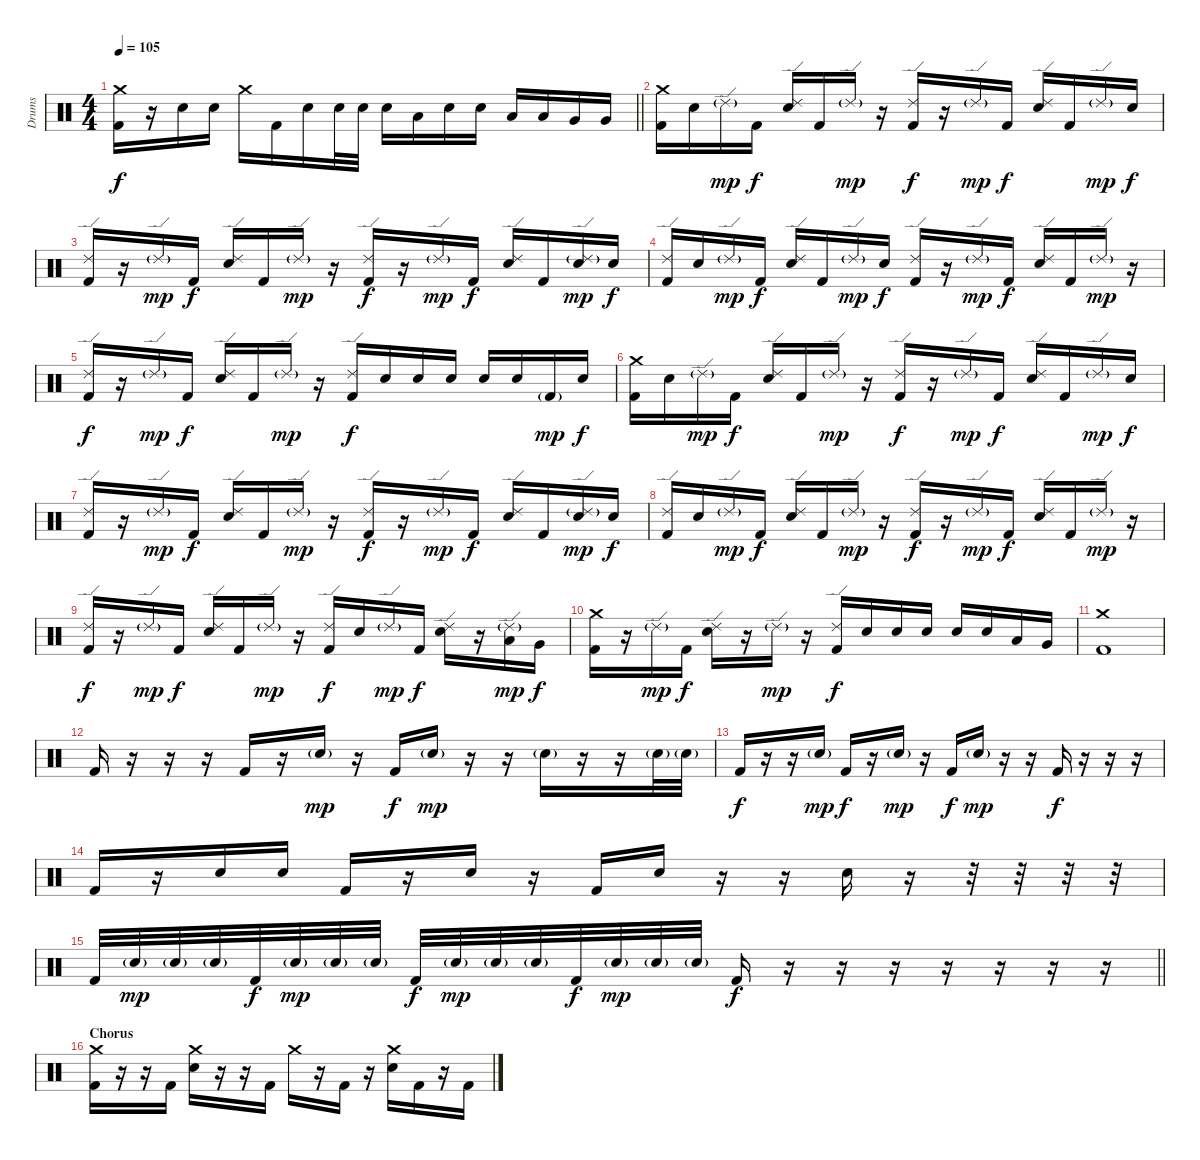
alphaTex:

\track ("Drums" "Drums") {instrument percussion}
\staff {score}
\articulation defaults
\ts (4 4)
\tempo 105
\clef neutral
\barLineRight lightlight
\ks c
("Crash medium (hit)" "Kick (hit) 2").16{dy f} r.16 "Electric Snare (hit)".16 "Electric Snare (hit)".16 "Crash medium (hit)".16 "Kick (hit) 2".16 "Electric Snare (hit)".16 "Electric Snare (hit)".32 "Electric Snare (hit)".32 "Electric Snare (hit)".16 "Low Tom (hit)".16 "Electric Snare (hit)".16 "Electric Snare (hit)".16 "Low Tom (hit)".16 "Low Tom (hit)".16 "Very Low Tom (hit)".16 "Very Low Tom (hit)".16 |
\section ("" "")
("Crash medium (hit)" "Kick (hit) 2").16 "Electric Snare (hit)".16 "Ride (edge) 2"{g}.16{dy mp} "Kick (hit) 2".16{dy f} ("Ride (edge) 2" "Electric Snare (hit)").16 "Kick (hit) 2".16 "Ride (edge) 2"{g}.16{dy mp} r.16 ("Ride (edge) 2" "Kick (hit) 2").16{dy f} r.16 "Ride (edge) 2"{g}.16{dy mp} "Kick (hit) 2".16{dy f} ("Ride (edge) 2" "Electric Snare (hit)").16 "Kick (hit) 2".16 "Ride (edge) 2"{g}.16{dy mp} "Electric Snare (hit)".16{dy f} |
("Ride (edge) 2" "Kick (hit) 2").16 r.16 "Ride (edge) 2"{g}.16{dy mp} "Kick (hit) 2".16{dy f} ("Ride (edge) 2" "Electric Snare (hit)").16 "Kick (hit) 2".16 "Ride (edge) 2"{g}.16{dy mp} r.16 ("Ride (edge) 2" "Kick (hit) 2").16{dy f} r.16 "Ride (edge) 2"{g}.16{dy mp} "Kick (hit) 2".16{dy f} ("Ride (edge) 2" "Electric Snare (hit)").16 "Kick (hit) 2".16 ("Ride (edge) 2"{g} "Electric Snare (hit)").16{dy mp} "Electric Snare (hit)".16{dy f} |
("Ride (edge) 2" "Kick (hit) 2").16 "Electric Snare (hit)".16 "Ride (edge) 2"{g}.16{dy mp} "Kick (hit) 2".16{dy f} ("Ride (edge) 2" "Electric Snare (hit)").16 "Kick (hit) 2".16 "Ride (edge) 2"{g}.16{dy mp} "Electric Snare (hit)".16{dy f} ("Ride (edge) 2" "Kick (hit) 2").16 r.16 "Ride (edge) 2"{g}.16{dy mp} "Kick (hit) 2".16{dy f} ("Ride (edge) 2" "Electric Snare (hit)").16 "Kick (hit) 2".16 "Ride (edge) 2"{g}.16{dy mp} r.16 |
("Ride (edge) 2" "Kick (hit) 2").16{dy f} r.16 "Ride (edge) 2"{g}.16{dy mp} "Kick (hit) 2".16{dy f} ("Ride (edge) 2" "Electric Snare (hit)").16 "Kick (hit) 2".16 "Ride (edge) 2"{g}.16{dy mp} r.16 ("Ride (edge) 2" "Kick (hit) 2").16{dy f} "Electric Snare (hit)".16 "Electric Snare (hit)".16 "Electric Snare (hit)".16 "Electric Snare (hit)".16 "Electric Snare (hit)".16 "Kick (hit) 2"{g}.16{dy mp} "Electric Snare (hit)".16{dy f} |
("Crash medium (hit)" "Kick (hit) 2").16 "Electric Snare (hit)".16 "Ride (edge) 2"{g}.16{dy mp} "Kick (hit) 2".16{dy f} ("Ride (edge) 2" "Electric Snare (hit)").16 "Kick (hit) 2".16 "Ride (edge) 2"{g}.16{dy mp} r.16 ("Ride (edge) 2" "Kick (hit) 2").16{dy f} r.16 "Ride (edge) 2"{g}.16{dy mp} "Kick (hit) 2".16{dy f} ("Ride (edge) 2" "Electric Snare (hit)").16 "Kick (hit) 2".16 "Ride (edge) 2"{g}.16{dy mp} "Electric Snare (hit)".16{dy f} |
("Ride (edge) 2" "Kick (hit) 2").16 r.16 "Ride (edge) 2"{g}.16{dy mp} "Kick (hit) 2".16{dy f} ("Ride (edge) 2" "Electric Snare (hit)").16 "Kick (hit) 2".16 "Ride (edge) 2"{g}.16{dy mp} r.16 ("Ride (edge) 2" "Kick (hit) 2").16{dy f} r.16 "Ride (edge) 2"{g}.16{dy mp} "Kick (hit) 2".16{dy f} ("Ride (edge) 2" "Electric Snare (hit)").16 "Kick (hit) 2".16 ("Ride (edge) 2"{g} "Electric Snare (hit)").16{dy mp} "Electric Snare (hit)".16{dy f} |
("Ride (edge) 2" "Kick (hit) 2").16 "Electric Snare (hit)".16 "Ride (edge) 2"{g}.16{dy mp} "Kick (hit) 2".16{dy f} ("Ride (edge) 2" "Electric Snare (hit)").16 "Kick (hit) 2".16 "Ride (edge) 2"{g}.16{dy mp} r.16 ("Ride (edge) 2" "Kick (hit) 2").16{dy f} r.16 "Ride (edge) 2"{g}.16{dy mp} "Kick (hit) 2".16{dy f} ("Ride (edge) 2" "Electric Snare (hit)").16 "Kick (hit) 2".16 "Ride (edge) 2"{g}.16{dy mp} r.16 |
("Ride (edge) 2" "Kick (hit) 2").16{dy f} r.16 "Ride (edge) 2"{g}.16{dy mp} "Kick (hit) 2".16{dy f} ("Ride (edge) 2" "Electric Snare (hit)").16 "Kick (hit) 2".16 "Ride (edge) 2"{g}.16{dy mp} r.16 ("Ride (edge) 2" "Kick (hit) 2").16{dy f} "Electric Snare (hit)".16 "Ride (edge) 2"{g}.16{dy mp} "Kick (hit) 2".16{dy f} ("Ride (edge) 2" "Electric Snare (hit)").16 r.16 ("Ride (edge) 2"{g} "Low Tom (hit)").16{dy mp} "Very Low Tom (hit)".16{dy f} |
("Crash medium (hit)" "Kick (hit) 2").16 r.16 "Ride (edge) 2"{g}.16{dy mp} "Kick (hit) 2".16{dy f} ("Ride (edge) 2" "Electric Snare (hit)").16 r.16 "Ride (edge) 2"{g}.16{dy mp} r.16 ("Ride (edge) 2" "Kick (hit) 2").16{dy f} "Electric Snare (hit)".16 "Electric Snare (hit)".16 "Electric Snare (hit)".16 "Electric Snare (hit)".16 "Electric Snare (hit)".16 "Low Tom (hit)".16 "Very Low Tom (hit)".16 |
("Crash medium (hit)" "Kick (hit) 2").1 |
"Kick (hit) 2".16 r.16 r.16 r.16 "Kick (hit) 2".16 r.16 "Electric Snare (hit)"{g}.16{dy mp} r.16 "Kick (hit) 2".16{dy f} "Electric Snare (hit)"{g}.16{dy mp} r.16 r.16 "Electric Snare (hit)"{g}.16 r.16 r.16 "Electric Snare (hit)"{g}.32 "Electric Snare (hit)"{g}.32 |
"Kick (hit) 2".16{dy f} r.16 r.16 "Electric Snare (hit)"{g}.16{dy mp} "Kick (hit) 2".16{dy f} r.16 "Electric Snare (hit)"{g}.16{dy mp} r.16 "Kick (hit) 2".16{dy f} "Electric Snare (hit)"{g}.16{dy mp} r.16 r.16 "Kick (hit) 2".16{dy f} r.16 r.16 r.16 |
"Kick (hit) 2".16 r.16 "Electric Snare (hit)".16 "Electric Snare (hit)".16 "Kick (hit) 2".16 r.16 "Electric Snare (hit)".16 r.16 "Kick (hit) 2".16 "Electric Snare (hit)".16 r.16 r.16 "Electric Snare (hit)".16 r.16 r.32 r.32 r.32 r.32 |
\barLineRight lightlight "Kick (hit) 2".32 "Electric Snare (hit)"{g}.32{dy mp} "Electric Snare (hit)"{g}.32 "Electric Snare (hit)"{g}.32 "Kick (hit) 2".32{dy f} "Electric Snare (hit)"{g}.32{dy mp} "Electric Snare (hit)"{g}.32 "Electric Snare (hit)"{g}.32 "Kick (hit) 2".32{dy f} "Electric Snare (hit)"{g}.32{dy mp} "Electric Snare (hit)"{g}.32 "Electric Snare (hit)"{g}.32 "Kick (hit) 2".32{dy f} "Electric Snare (hit)"{g}.32{dy mp} "Electric Snare (hit)"{g}.32 "Electric Snare (hit)"{g}.32 "Kick (hit) 2".16{dy f}
r.16 r.16 r.16 r.16 r.16 r.16 r.16 |
\section ("" "Chorus")
("Crash medium (hit)" "Kick (hit) 2").16 r.16 r.16 "Kick (hit) 2".16 ("Crash medium (hit)" "Electric Snare (hit)").16 r.16 r.16 "Kick (hit) 2".16 "Crash medium (hit)".16 r.16 "Kick (hit) 2".16 r.16 ("Crash medium (hit)" "Electric Snare (hit)").16 "Kick (hit) 2".16 r.16 "Kick (hit) 2".16
